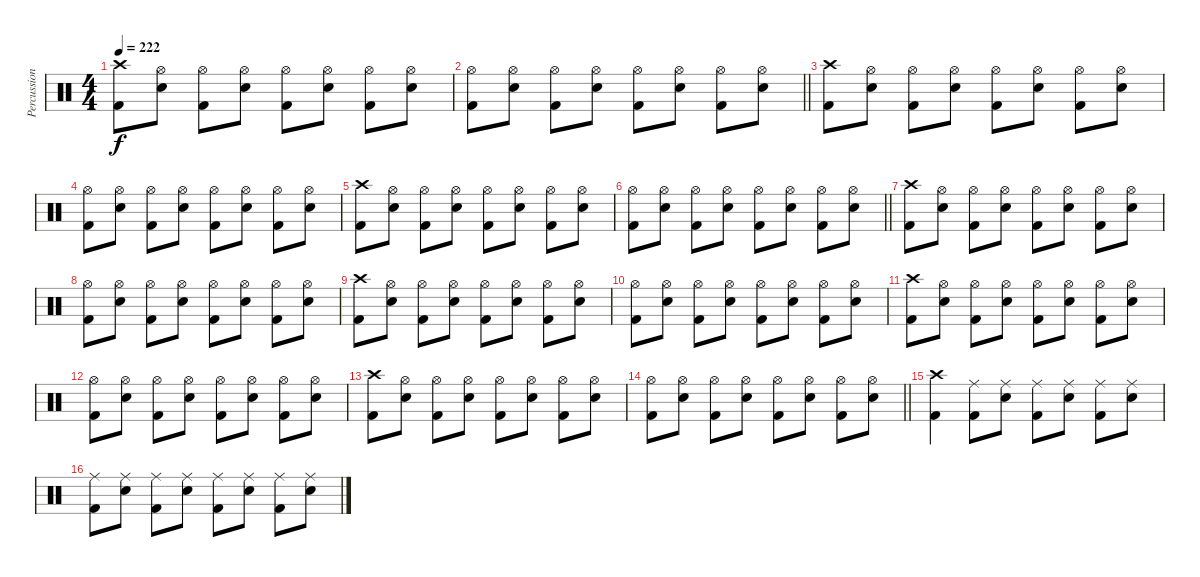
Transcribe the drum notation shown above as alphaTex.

\track ("Percussions" "Percussion") {instrument percussion}
\staff {score}
\articulation defaults
\ts (4 4)
\tempo 222
\clef neutral
\ks c
("Crash high (hit)" "Kick (hit) 2").8{dy f} ("Hi-Hat (open)" "Electric Snare (hit)").8 ("Hi-Hat (open)" "Kick (hit) 2").8 ("Hi-Hat (open)" "Electric Snare (hit)").8 ("Hi-Hat (open)" "Kick (hit) 2").8 ("Hi-Hat (open)" "Electric Snare (hit)").8 ("Hi-Hat (open)" "Kick (hit) 2").8 ("Hi-Hat (open)" "Electric Snare (hit)").8 |
\barLineRight lightlight
("Hi-Hat (open)" "Kick (hit) 2").8 ("Hi-Hat (open)" "Electric Snare (hit)").8 ("Hi-Hat (open)" "Kick (hit) 2").8 ("Hi-Hat (open)" "Electric Snare (hit)").8 ("Hi-Hat (open)" "Kick (hit) 2").8 ("Hi-Hat (open)" "Electric Snare (hit)").8 ("Hi-Hat (open)" "Kick (hit) 2").8 ("Hi-Hat (open)" "Electric Snare (hit)").8 |
\section ("" "")
("Crash high (hit)" "Kick (hit) 2").8 ("Hi-Hat (open)" "Electric Snare (hit)").8 ("Hi-Hat (open)" "Kick (hit) 2").8 ("Hi-Hat (open)" "Electric Snare (hit)").8 ("Hi-Hat (open)" "Kick (hit) 2").8 ("Hi-Hat (open)" "Electric Snare (hit)").8 ("Hi-Hat (open)" "Kick (hit) 2").8 ("Hi-Hat (open)" "Electric Snare (hit)").8 |
("Hi-Hat (open)" "Kick (hit) 2").8 ("Hi-Hat (open)" "Electric Snare (hit)").8 ("Hi-Hat (open)" "Kick (hit) 2").8 ("Hi-Hat (open)" "Electric Snare (hit)").8 ("Hi-Hat (open)" "Kick (hit) 2").8 ("Hi-Hat (open)" "Electric Snare (hit)").8 ("Hi-Hat (open)" "Kick (hit) 2").8 ("Hi-Hat (open)" "Electric Snare (hit)").8 |
("Crash high (hit)" "Kick (hit) 2").8 ("Hi-Hat (open)" "Electric Snare (hit)").8 ("Hi-Hat (open)" "Kick (hit) 2").8 ("Hi-Hat (open)" "Electric Snare (hit)").8 ("Hi-Hat (open)" "Kick (hit) 2").8 ("Hi-Hat (open)" "Electric Snare (hit)").8 ("Hi-Hat (open)" "Kick (hit) 2").8 ("Hi-Hat (open)" "Electric Snare (hit)").8 |
\barLineRight lightlight
("Hi-Hat (open)" "Kick (hit) 2").8 ("Hi-Hat (open)" "Electric Snare (hit)").8 ("Hi-Hat (open)" "Kick (hit) 2").8 ("Hi-Hat (open)" "Electric Snare (hit)").8 ("Hi-Hat (open)" "Kick (hit) 2").8 ("Hi-Hat (open)" "Electric Snare (hit)").8 ("Hi-Hat (open)" "Kick (hit) 2").8 ("Hi-Hat (open)" "Electric Snare (hit)").8 |
\section ("" "")
("Crash high (hit)" "Kick (hit) 2").8 ("Hi-Hat (open)" "Electric Snare (hit)").8 ("Hi-Hat (open)" "Kick (hit) 2").8 ("Hi-Hat (open)" "Electric Snare (hit)").8 ("Hi-Hat (open)" "Kick (hit) 2").8 ("Hi-Hat (open)" "Electric Snare (hit)").8 ("Hi-Hat (open)" "Kick (hit) 2").8 ("Hi-Hat (open)" "Electric Snare (hit)").8 |
("Hi-Hat (open)" "Kick (hit) 2").8 ("Hi-Hat (open)" "Electric Snare (hit)").8 ("Hi-Hat (open)" "Kick (hit) 2").8 ("Hi-Hat (open)" "Electric Snare (hit)").8 ("Hi-Hat (open)" "Kick (hit) 2").8 ("Hi-Hat (open)" "Electric Snare (hit)").8 ("Hi-Hat (open)" "Kick (hit) 2").8 ("Hi-Hat (open)" "Electric Snare (hit)").8 |
("Crash high (hit)" "Kick (hit) 2").8 ("Hi-Hat (open)" "Electric Snare (hit)").8 ("Hi-Hat (open)" "Kick (hit) 2").8 ("Hi-Hat (open)" "Electric Snare (hit)").8 ("Hi-Hat (open)" "Kick (hit) 2").8 ("Hi-Hat (open)" "Electric Snare (hit)").8 ("Hi-Hat (open)" "Kick (hit) 2").8 ("Hi-Hat (open)" "Electric Snare (hit)").8 |
("Hi-Hat (open)" "Kick (hit) 2").8 ("Hi-Hat (open)" "Electric Snare (hit)").8 ("Hi-Hat (open)" "Kick (hit) 2").8 ("Hi-Hat (open)" "Electric Snare (hit)").8 ("Hi-Hat (open)" "Kick (hit) 2").8 ("Hi-Hat (open)" "Electric Snare (hit)").8 ("Hi-Hat (open)" "Kick (hit) 2").8 ("Hi-Hat (open)" "Electric Snare (hit)").8 |
("Crash high (hit)" "Kick (hit) 2").8 ("Hi-Hat (open)" "Electric Snare (hit)").8 ("Hi-Hat (open)" "Kick (hit) 2").8 ("Hi-Hat (open)" "Electric Snare (hit)").8 ("Hi-Hat (open)" "Kick (hit) 2").8 ("Hi-Hat (open)" "Electric Snare (hit)").8 ("Hi-Hat (open)" "Kick (hit) 2").8 ("Hi-Hat (open)" "Electric Snare (hit)").8 |
("Hi-Hat (open)" "Kick (hit) 2").8 ("Hi-Hat (open)" "Electric Snare (hit)").8 ("Hi-Hat (open)" "Kick (hit) 2").8 ("Hi-Hat (open)" "Electric Snare (hit)").8 ("Hi-Hat (open)" "Kick (hit) 2").8 ("Hi-Hat (open)" "Electric Snare (hit)").8 ("Hi-Hat (open)" "Kick (hit) 2").8 ("Hi-Hat (open)" "Electric Snare (hit)").8 |
("Crash high (hit)" "Kick (hit) 2").8 ("Hi-Hat (open)" "Electric Snare (hit)").8 ("Hi-Hat (open)" "Kick (hit) 2").8 ("Hi-Hat (open)" "Electric Snare (hit)").8 ("Hi-Hat (open)" "Kick (hit) 2").8 ("Hi-Hat (open)" "Electric Snare (hit)").8 ("Hi-Hat (open)" "Kick (hit) 2").8 ("Hi-Hat (open)" "Electric Snare (hit)").8 |
\barLineRight lightlight
("Hi-Hat (open)" "Kick (hit) 2").8 ("Hi-Hat (open)" "Electric Snare (hit)").8 ("Hi-Hat (open)" "Kick (hit) 2").8 ("Hi-Hat (open)" "Electric Snare (hit)").8 ("Hi-Hat (open)" "Kick (hit) 2").8 ("Hi-Hat (open)" "Electric Snare (hit)").8 ("Hi-Hat (open)" "Kick (hit) 2").8 ("Hi-Hat (open)" "Electric Snare (hit)").8 |
\section ("" "")
("Crash high (hit)" "Kick (hit) 2").4 ("Ride (middle)" "Kick (hit) 2").8 ("Ride (middle)" "Electric Snare (hit)").8 ("Ride (middle)" "Kick (hit) 2").8 ("Ride (middle)" "Electric Snare (hit)").8 ("Ride (middle)" "Kick (hit) 2").8 ("Ride (middle)" "Electric Snare (hit)").8 |
("Ride (middle)" "Kick (hit) 2").8 ("Ride (middle)" "Electric Snare (hit)").8 ("Ride (middle)" "Kick (hit) 2").8 ("Ride (middle)" "Electric Snare (hit)").8 ("Ride (middle)" "Kick (hit) 2").8 ("Ride (middle)" "Electric Snare (hit)").8 ("Ride (middle)" "Kick (hit) 2").8 ("Ride (middle)" "Electric Snare (hit)").8
